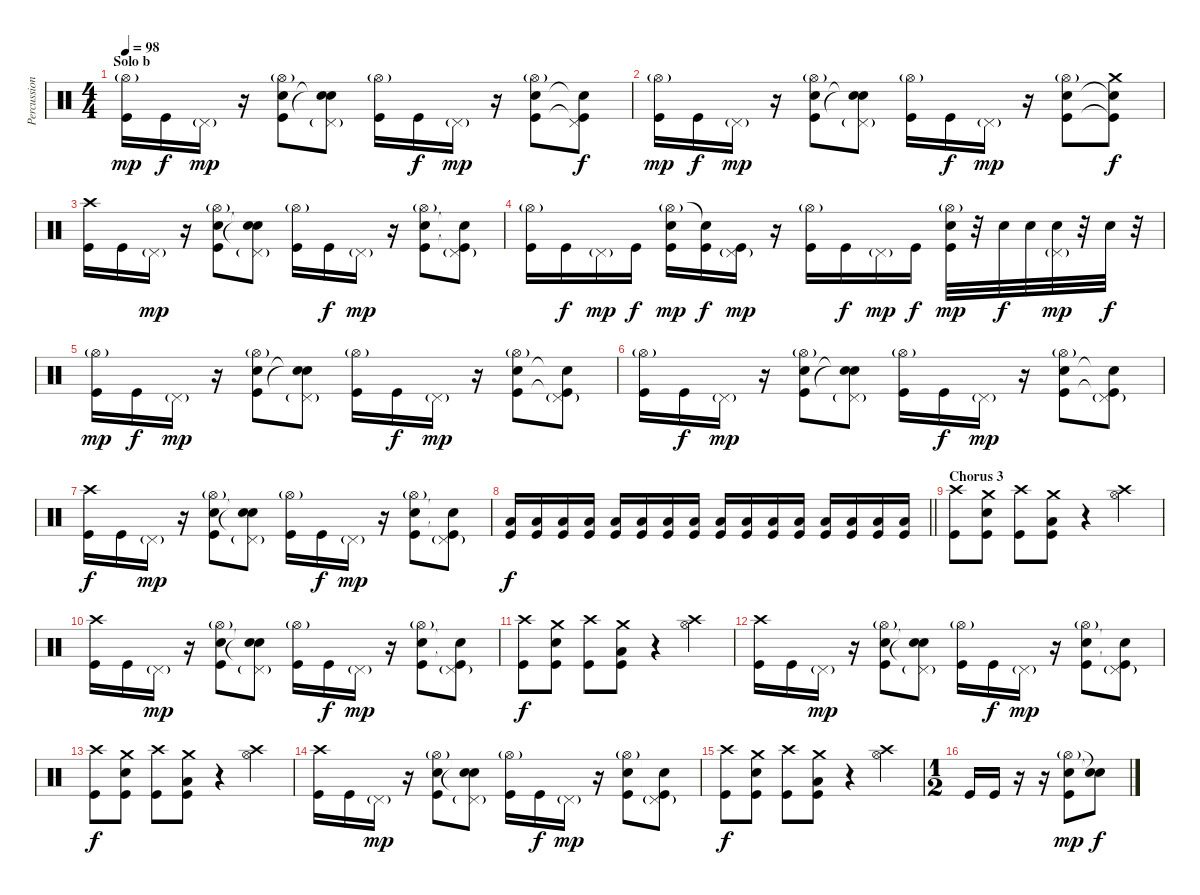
\track ("Percussion" "Percussion") {instrument percussion}
\staff {score}
\articulation defaults
\ts (4 4)
\section ("" "Solo b")
\tempo 98
\clef neutral
\ks c
("Hi-Hat (open)"{g} "Kick (hit)").16{dy mp} "Kick (hit)".16{dy f} "Pedal Hi-Hat (hit)"{g}.16{dy mp} r.16 ("Hi-Hat (open)"{g} "Snare (hit) 2" "Kick (hit)").8 ("Pedal Hi-Hat (hit)"{g} "Snare (hit)"{t} "Snare (hit)"{t}).8 ("Hi-Hat (open)"{g} "Kick (hit)").16 "Kick (hit)".16{dy f} "Pedal Hi-Hat (hit)"{g}.16{dy mp} r.16 ("Hi-Hat (open)"{g} "Snare (hit) 2" "Kick (hit)").8 ("Pedal Hi-Hat (hit)" "Snare (hit)"{t} "Kick (hit)"{t}).8{dy f} |
("Hi-Hat (open)"{g} "Kick (hit)").16{dy mp} "Kick (hit)".16{dy f} "Pedal Hi-Hat (hit)"{g}.16{dy mp} r.16 ("Hi-Hat (open)"{g} "Snare (hit) 2" "Kick (hit)").8 ("Pedal Hi-Hat (hit)"{g} "Snare (hit)"{t} "Snare (hit)"{t}).8 ("Hi-Hat (open)"{g} "Kick (hit)").16 "Kick (hit)".16{dy f} "Pedal Hi-Hat (hit)"{g}.16{dy mp} r.16 ("Hi-Hat (open)"{g} "Snare (hit) 2" "Kick (hit)").8 ("Crash medium (hit)" "Snare (hit)"{t} "Kick (hit)"{t}).8{dy f} |
("Crash high (hit)" "Kick (hit)").16 "Kick (hit)".16 "Pedal Hi-Hat (hit)"{g}.16{dy mp} r.16 ("Hi-Hat (open)"{g} "Snare (hit) 2" "Kick (hit)").8 ("Pedal Hi-Hat (hit)"{g} "Snare (hit)"{t} "Snare (hit)"{t}).8 ("Hi-Hat (open)"{g} "Kick (hit)").16 "Kick (hit)".16{dy f} "Pedal Hi-Hat (hit)"{g}.16{dy mp} r.16 ("Hi-Hat (open)"{g} "Snare (hit) 2" "Kick (hit)").8 ("Pedal Hi-Hat (hit)"{g} "Snare (hit)"{t} "Kick (hit)"{t}).8 |
("Hi-Hat (open)"{g} "Kick (hit)").16 "Kick (hit)".16{dy f} "Pedal Hi-Hat (hit)"{g}.16{dy mp} "Kick (hit)".16{dy f} ("Hi-Hat (open)"{g} "Snare (hit) 2" "Kick (hit)").16{dy mp} ("Snare (hit)"{t} "Kick (hit)").16{dy f} ("Pedal Hi-Hat (hit)"{g} "Kick (hit)").16{dy mp} r.16 ("Hi-Hat (open)"{g} "Kick (hit)").16 "Kick (hit)".16{dy f} "Pedal Hi-Hat (hit)"{g}.16{dy mp} "Kick (hit)".16{dy f} ("Hi-Hat (open)"{g} "Snare (hit) 2" "Kick (hit)").32{dy mp} r.32 "Snare (hit) 2".32{dy f} "Snare (hit) 2".32 ("Pedal Hi-Hat (hit)"{g} "Snare (hit) 2").32{dy mp} r.32 "Snare (hit) 2".32{dy f} r.32 |
("Hi-Hat (open)"{g} "Kick (hit)").16{dy mp} "Kick (hit)".16{dy f} "Pedal Hi-Hat (hit)"{g}.16{dy mp} r.16 ("Hi-Hat (open)"{g} "Snare (hit) 2" "Kick (hit)").8 ("Pedal Hi-Hat (hit)"{g} "Snare (hit)"{t} "Snare (hit)"{t}).8 ("Hi-Hat (open)"{g} "Kick (hit)").16 "Kick (hit)".16{dy f} "Pedal Hi-Hat (hit)"{g}.16{dy mp} r.16 ("Hi-Hat (open)"{g} "Snare (hit) 2" "Kick (hit)").8 ("Pedal Hi-Hat (hit)"{g} "Snare (hit)"{t} "Kick (hit)"{t}).8 |
("Hi-Hat (open)"{g} "Kick (hit)").16 "Kick (hit)".16{dy f} "Pedal Hi-Hat (hit)"{g}.16{dy mp} r.16 ("Hi-Hat (open)"{g} "Snare (hit) 2" "Kick (hit)").8 ("Pedal Hi-Hat (hit)"{g} "Snare (hit)"{t} "Snare (hit)"{t}).8 ("Hi-Hat (open)"{g} "Kick (hit)").16 "Kick (hit)".16{dy f} "Pedal Hi-Hat (hit)"{g}.16{dy mp} r.16 ("Hi-Hat (open)"{g} "Snare (hit) 2" "Kick (hit)").8 ("Pedal Hi-Hat (hit)"{g} "Snare (hit)"{t} "Kick (hit)"{t}).8 |
("Crash high (hit)" "Kick (hit)").16{dy f} "Kick (hit)".16 "Pedal Hi-Hat (hit)"{g}.16{dy mp} r.16 ("Hi-Hat (open)"{g} "Snare (hit) 2" "Kick (hit)").8 ("Pedal Hi-Hat (hit)"{g} "Snare (hit)"{t} "Snare (hit)"{t}).8 ("Hi-Hat (open)"{g} "Kick (hit)").16 "Kick (hit)".16{dy f} "Pedal Hi-Hat (hit)"{g}.16{dy mp} r.16 ("Hi-Hat (open)"{g} "Snare (hit) 2" "Kick (hit)").8 ("Pedal Hi-Hat (hit)"{g} "Snare (hit)"{t} "Kick (hit)"{t}).8 |
\barLineRight lightlight
("Low Floor Tom (hit)" "Kick (hit)").16{dy f} ("Low Floor Tom (hit)" "Kick (hit)").16 ("Low Floor Tom (hit)" "Kick (hit)").16 ("Low Floor Tom (hit)" "Kick (hit)").16 ("Low Floor Tom (hit)" "Kick (hit)").16 ("Low Floor Tom (hit)" "Kick (hit)").16 ("Low Floor Tom (hit)" "Kick (hit)").16 ("Low Floor Tom (hit)" "Kick (hit)").16 ("Low Floor Tom (hit)" "Kick (hit)").16 ("Low Floor Tom (hit)" "Kick (hit)").16 ("Low Floor Tom (hit)" "Kick (hit)").16 ("Low Floor Tom (hit)" "Kick (hit)").16 ("Low Floor Tom (hit)" "Kick (hit)").16 ("Low Floor Tom (hit)" "Kick (hit)").16 ("Low Floor Tom (hit)" "Kick (hit)").16 ("Low Floor Tom (hit)" "Kick (hit)").16 |
\section ("" "Chorus 3")
("Crash high (hit)" "Kick (hit)").8 ("Crash medium (hit)" "Snare (hit) 2" "Kick (hit)").8 ("Crash high (hit)" "Kick (hit)").8 ("Crash medium (hit)" "Low Floor Tom (hit)" "Kick (hit)").8 r.4 ("Crash high (hit)" "Hi-Hat (open)").4 |
("Crash high (hit)" "Kick (hit)").16 "Kick (hit)".16 "Pedal Hi-Hat (hit)"{g}.16{dy mp} r.16 ("Hi-Hat (open)"{g} "Snare (hit) 2" "Kick (hit)").8 ("Pedal Hi-Hat (hit)"{g} "Snare (hit)"{t} "Snare (hit)"{t}).8 ("Hi-Hat (open)"{g} "Kick (hit)").16 "Kick (hit)".16{dy f} "Pedal Hi-Hat (hit)"{g}.16{dy mp} r.16 ("Hi-Hat (open)"{g} "Snare (hit) 2" "Kick (hit)").8 ("Pedal Hi-Hat (hit)"{g} "Snare (hit)"{t} "Kick (hit)"{t}).8 |
("Crash high (hit)" "Kick (hit)").8{dy f} ("Crash medium (hit)" "Snare (hit) 2" "Kick (hit)").8 ("Crash high (hit)" "Kick (hit)").8 ("Crash medium (hit)" "Low Floor Tom (hit)" "Kick (hit)").8 r.4 ("Crash high (hit)" "Hi-Hat (open)").4 |
("Crash high (hit)" "Kick (hit)").16 "Kick (hit)".16 "Pedal Hi-Hat (hit)"{g}.16{dy mp} r.16 ("Hi-Hat (open)"{g} "Snare (hit) 2" "Kick (hit)").8 ("Pedal Hi-Hat (hit)"{g} "Snare (hit)"{t} "Snare (hit)"{t}).8 ("Hi-Hat (open)"{g} "Kick (hit)").16 "Kick (hit)".16{dy f} "Pedal Hi-Hat (hit)"{g}.16{dy mp} r.16 ("Hi-Hat (open)"{g} "Snare (hit) 2" "Kick (hit)").8 ("Pedal Hi-Hat (hit)"{g} "Snare (hit)"{t} "Kick (hit)"{t}).8 |
("Crash high (hit)" "Kick (hit)").8{dy f} ("Crash medium (hit)" "Snare (hit) 2" "Kick (hit)").8 ("Crash high (hit)" "Kick (hit)").8 ("Crash medium (hit)" "Low Floor Tom (hit)" "Kick (hit)").8 r.4 ("Crash high (hit)" "Hi-Hat (open)").4 |
("Crash high (hit)" "Kick (hit)").16 "Kick (hit)".16 "Pedal Hi-Hat (hit)"{g}.16{dy mp} r.16 ("Hi-Hat (open)"{g} "Snare (hit) 2" "Kick (hit)").8 ("Pedal Hi-Hat (hit)"{g} "Snare (hit)"{t} "Snare (hit)"{t}).8 ("Hi-Hat (open)"{g} "Kick (hit)").16 "Kick (hit)".16{dy f} "Pedal Hi-Hat (hit)"{g}.16{dy mp} r.16 ("Hi-Hat (open)"{g} "Snare (hit) 2" "Kick (hit)").8 ("Pedal Hi-Hat (hit)"{g} "Snare (hit)"{t} "Kick (hit)"{t}).8 |
("Crash high (hit)" "Kick (hit)").8{dy f} ("Crash medium (hit)" "Snare (hit) 2" "Kick (hit)").8 ("Crash high (hit)" "Kick (hit)").8 ("Crash medium (hit)" "Low Floor Tom (hit)" "Kick (hit)").8 r.4 ("Crash high (hit)" "Hi-Hat (open)").4 |
\ts (1 2)
"Kick (hit)".16 "Kick (hit)".16 r.16 r.16 ("Hi-Hat (open)"{g} "Snare (hit) 2" "Kick (hit)").8{dy mp} ("Snare (hit)"{t} "Snare (hit)"{t}).8{dy f}
